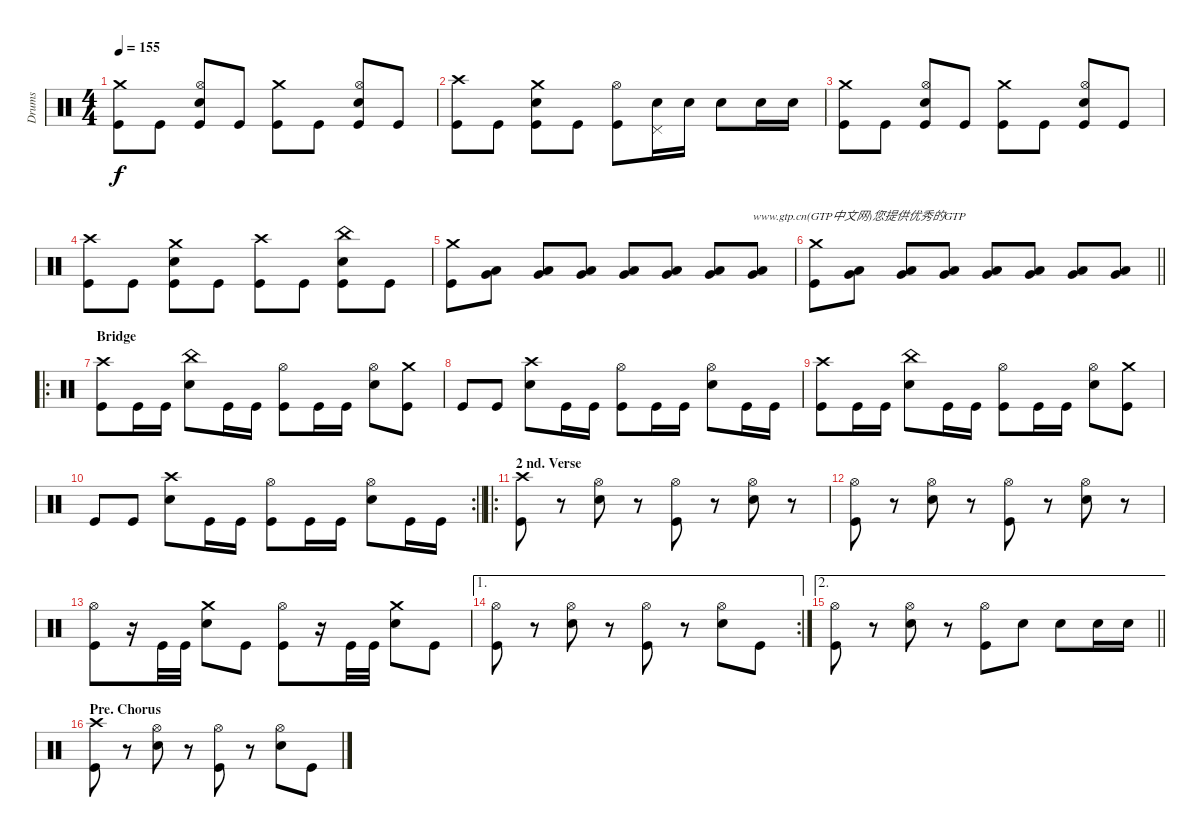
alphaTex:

\track ("Drums" "Drums") {instrument percussion}
\staff {score}
\articulation defaults
\ts (4 4)
\tempo 155
\clef neutral
\ks c
("Crash medium (hit)" "Kick (hit)").8{dy f} "Kick (hit)".8 ("Hi-Hat (open)" "Electric Snare (hit)" "Kick (hit)").8 "Kick (hit)".8 ("Crash medium (hit)" "Kick (hit)").8 "Kick (hit)".8 ("Hi-Hat (open)" "Electric Snare (hit)" "Kick (hit)").8 "Kick (hit)".8 |
("Crash high (hit)" "Kick (hit)").8 "Kick (hit)".8 ("Crash medium (hit)" "Electric Snare (hit)" "Kick (hit)").8 "Kick (hit)".8 ("Hi-Hat (open)" "Kick (hit)").8 ("Pedal Hi-Hat (hit)" "Electric Snare (hit)").16 "Electric Snare (hit)".16 "Electric Snare (hit)".8 "Electric Snare (hit)".16 "Electric Snare (hit)".16 |
("Crash medium (hit)" "Kick (hit)").8 "Kick (hit)".8 ("Hi-Hat (open)" "Electric Snare (hit)" "Kick (hit)").8 "Kick (hit)".8 ("Crash medium (hit)" "Kick (hit)").8 "Kick (hit)".8 ("Hi-Hat (open)" "Electric Snare (hit)" "Kick (hit)").8 "Kick (hit)".8 |
("Crash high (hit)" "Kick (hit)").8 "Kick (hit)".8 ("Crash medium (hit)" "Electric Snare (hit)" "Kick (hit)").8 "Kick (hit)".8 ("Crash high (hit)" "Kick (hit)").8 "Kick (hit)".8 ("China (hit)" "Electric Snare (hit)" "Kick (hit)").8 "Kick (hit)".8 |
("Crash medium (hit)" "Kick (hit)").8 ("Low Tom (hit)" "Very Low Tom (hit)").8 ("Low Tom (hit)" "Very Low Tom (hit)").8 ("Low Tom (hit)" "Very Low Tom (hit)").8 ("Low Tom (hit)" "Very Low Tom (hit)").8 ("Low Tom (hit)" "Very Low Tom (hit)").8 ("Low Tom (hit)" "Very Low Tom (hit)").8 ("Low Tom (hit)" "Very Low Tom (hit)").8{txt "www.gtp.cn(GTP中文网)您提供优秀的GTP"} |
\barLineRight lightlight
("Crash medium (hit)" "Kick (hit)").8 ("Low Tom (hit)" "Very Low Tom (hit)").8 ("Low Tom (hit)" "Very Low Tom (hit)").8 ("Low Tom (hit)" "Very Low Tom (hit)").8 ("Low Tom (hit)" "Very Low Tom (hit)").8 ("Low Tom (hit)" "Very Low Tom (hit)").8 ("Low Tom (hit)" "Very Low Tom (hit)").8 ("Low Tom (hit)" "Very Low Tom (hit)").8 |
\ro
\section ("" "Bridge")
("Crash high (hit)" "Kick (hit)").8 "Kick (hit)".16 "Kick (hit)".16 ("China (hit)" "Electric Snare (hit)").8 "Kick (hit)".16 "Kick (hit)".16 ("Hi-Hat (open)" "Kick (hit)").8 "Kick (hit)".16 "Kick (hit)".16 ("Hi-Hat (open)" "Electric Snare (hit)").8 ("Crash medium (hit)" "Kick (hit)").8 |
"Kick (hit)".8 "Kick (hit)".8 ("Crash high (hit)" "Electric Snare (hit)").8 "Kick (hit)".16 "Kick (hit)".16 ("Hi-Hat (open)" "Kick (hit)").8 "Kick (hit)".16 "Kick (hit)".16 ("Hi-Hat (open)" "Electric Snare (hit)").8 "Kick (hit)".16 "Kick (hit)".16 |
("Crash high (hit)" "Kick (hit)").8 "Kick (hit)".16 "Kick (hit)".16 ("China (hit)" "Electric Snare (hit)").8 "Kick (hit)".16 "Kick (hit)".16 ("Hi-Hat (open)" "Kick (hit)").8 "Kick (hit)".16 "Kick (hit)".16 ("Hi-Hat (open)" "Electric Snare (hit)").8 ("Crash medium (hit)" "Kick (hit)").8 |
\rc 2
\barLineRight lightlight "Kick (hit)".8 "Kick (hit)".8
("Crash high (hit)" "Electric Snare (hit)").8 "Kick (hit)".16 "Kick (hit)".16 ("Hi-Hat (open)" "Kick (hit)").8 "Kick (hit)".16 "Kick (hit)".16 ("Hi-Hat (open)" "Electric Snare (hit)").8 "Kick (hit)".16 "Kick (hit)".16 |
\ro
\section ("" "2 nd. Verse")
("Crash high (hit)" "Kick (hit)").8 r.8 ("Hi-Hat (open)" "Electric Snare (hit)").8 r.8 ("Hi-Hat (open)" "Kick (hit)").8 r.8 ("Hi-Hat (open)" "Electric Snare (hit)").8 r.8 |
("Hi-Hat (open)" "Kick (hit)").8 r.8 ("Hi-Hat (open)" "Electric Snare (hit)").8 r.8 ("Hi-Hat (open)" "Kick (hit)").8 r.8 ("Hi-Hat (open)" "Electric Snare (hit)").8 r.8 |
("Hi-Hat (open)" "Kick (hit)").8 r.16 "Kick (hit)".32 "Kick (hit)".32 ("Crash medium (hit)" "Electric Snare (hit)").8 "Kick (hit)".8 ("Hi-Hat (open)" "Kick (hit)").8 r.16 "Kick (hit)".32 "Kick (hit)".32 ("Crash medium (hit)" "Electric Snare (hit)").8 "Kick (hit)".8 |
\ae 1
\rc 2
("Hi-Hat (open)" "Kick (hit)").8 r.8 ("Hi-Hat (open)" "Electric Snare (hit)").8 r.8 ("Hi-Hat (open)" "Kick (hit)").8 r.8 ("Hi-Hat (open)" "Electric Snare (hit)").8 "Kick (hit)".8 |
\ae 2
\barLineRight lightlight
("Hi-Hat (open)" "Kick (hit)").8 r.8 ("Hi-Hat (open)" "Electric Snare (hit)").8 r.8 ("Hi-Hat (open)" "Kick (hit)").8 "Electric Snare (hit)".8 "Electric Snare (hit)".8 "Electric Snare (hit)".16 "Electric Snare (hit)".16 |
\section ("" "Pre. Chorus")
("Crash high (hit)" "Kick (hit)").8 r.8 ("Hi-Hat (open)" "Electric Snare (hit)").8 r.8 ("Hi-Hat (open)" "Kick (hit)").8 r.8 ("Hi-Hat (open)" "Electric Snare (hit)").8 "Kick (hit)".8
